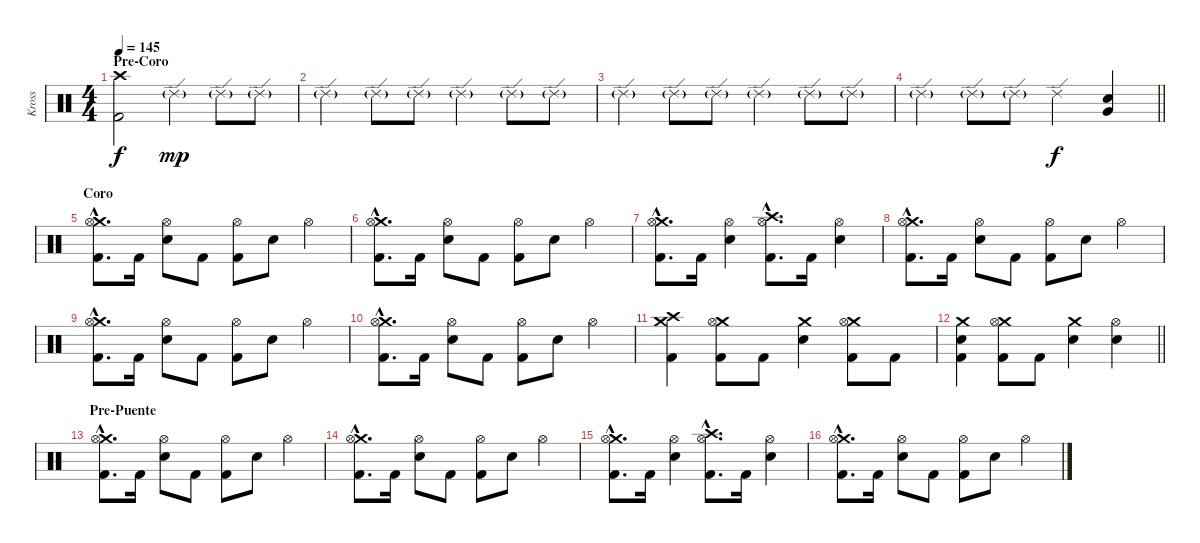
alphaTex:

\track ("Kross" "Kross") {instrument percussion}
\staff {score}
\articulation defaults
\ts (4 4)
\section ("" "Pre-Coro")
\tempo 145
\clef neutral
\ks c
("Crash high (hit)" "Kick (hit) 2").2{dy f} "Ride (edge) 2"{g}.4{dy mp} "Ride (edge) 2"{g}.8 "Ride (edge) 2"{g}.8 |
"Ride (edge) 2"{g}.4 "Ride (edge) 2"{g}.8 "Ride (edge) 2"{g}.8 "Ride (edge) 2"{g}.4 "Ride (edge) 2"{g}.8 "Ride (edge) 2"{g}.8 |
"Ride (edge) 2"{g}.4 "Ride (edge) 2"{g}.8 "Ride (edge) 2"{g}.8 "Ride (edge) 2"{g}.4 "Ride (edge) 2"{g}.8 "Ride (edge) 2"{g}.8 |
\barLineRight lightlight "Ride (edge) 2"{g}.4 "Ride (edge) 2"{g}.8 "Ride (edge) 2"{g}.8 "Ride (edge) 2".4{dy f}
("Very Low Tom (hit)" "Electric Snare (hit)").4 |
\section ("" "Coro")
("Crash medium (hit)"{hac} "Hi-Hat (open)"{hac} "Kick (hit) 2"{hac}).8{d} "Kick (hit) 2".16 ("Hi-Hat (open)" "Electric Snare (hit)").8 "Kick (hit) 2".8 ("Hi-Hat (open)" "Kick (hit) 2").8 "Electric Snare (hit)".8 "Hi-Hat (open)".4 |
("Crash medium (hit)"{hac} "Hi-Hat (open)"{hac} "Kick (hit) 2"{hac}).8{d} "Kick (hit) 2".16 ("Hi-Hat (open)" "Electric Snare (hit)").8 "Kick (hit) 2".8 ("Hi-Hat (open)" "Kick (hit) 2").8 "Electric Snare (hit)".8 "Hi-Hat (open)".4 |
("Crash medium (hit)"{hac} "Hi-Hat (open)"{hac} "Kick (hit) 2"{hac}).8{d} "Kick (hit) 2".16 ("Hi-Hat (open)" "Electric Snare (hit)").4 ("Crash high (hit)"{hac} "Hi-Hat (open)"{hac} "Kick (hit) 2"{hac}).8{d} "Kick (hit) 2".16 ("Hi-Hat (open)" "Electric Snare (hit)").4 |
("Crash medium (hit)"{hac} "Hi-Hat (open)"{hac} "Kick (hit) 2"{hac}).8{d} "Kick (hit) 2".16 ("Hi-Hat (open)" "Electric Snare (hit)").8 "Kick (hit) 2".8 ("Hi-Hat (open)" "Kick (hit) 2").8 "Electric Snare (hit)".8 "Hi-Hat (open)".4 |
("Crash medium (hit)"{hac} "Hi-Hat (open)"{hac} "Kick (hit) 2"{hac}).8{d} "Kick (hit) 2".16 ("Hi-Hat (open)" "Electric Snare (hit)").8 "Kick (hit) 2".8 ("Hi-Hat (open)" "Kick (hit) 2").8 "Electric Snare (hit)".8 "Hi-Hat (open)".4 |
("Crash medium (hit)"{hac} "Hi-Hat (open)"{hac} "Kick (hit) 2"{hac}).8{d} "Kick (hit) 2".16 ("Hi-Hat (open)" "Electric Snare (hit)").8 "Kick (hit) 2".8 ("Hi-Hat (open)" "Kick (hit) 2").8 "Electric Snare (hit)".8 "Hi-Hat (open)".4 |
("Crash medium (hit)" "Crash high (hit)" "Kick (hit) 2").4 ("Crash medium (hit)" "Hi-Hat (open)" "Kick (hit) 2").8 "Kick (hit) 2".8 ("Crash medium (hit)" "Electric Snare (hit)").4 ("Crash medium (hit)" "Hi-Hat (open)" "Kick (hit) 2").8 "Kick (hit) 2".8 |
\barLineRight lightlight
("Crash medium (hit)" "Electric Snare (hit)" "Kick (hit) 2").4 ("Crash medium (hit)" "Hi-Hat (open)" "Kick (hit) 2").8 "Kick (hit) 2".8 ("Crash medium (hit)" "Electric Snare (hit)").4 ("Hi-Hat (open)" "Electric Snare (hit)").4 |
\section ("" "Pre-Puente")
("Crash medium (hit)"{hac} "Hi-Hat (open)"{hac} "Kick (hit) 2"{hac}).8{d} "Kick (hit) 2".16 ("Hi-Hat (open)" "Electric Snare (hit)").8 "Kick (hit) 2".8 ("Hi-Hat (open)" "Kick (hit) 2").8 "Electric Snare (hit)".8 "Hi-Hat (open)".4 |
("Crash medium (hit)"{hac} "Hi-Hat (open)"{hac} "Kick (hit) 2"{hac}).8{d} "Kick (hit) 2".16 ("Hi-Hat (open)" "Electric Snare (hit)").8 "Kick (hit) 2".8 ("Hi-Hat (open)" "Kick (hit) 2").8 "Electric Snare (hit)".8 "Hi-Hat (open)".4 |
("Crash medium (hit)"{hac} "Hi-Hat (open)"{hac} "Kick (hit) 2"{hac}).8{d} "Kick (hit) 2".16 ("Hi-Hat (open)" "Electric Snare (hit)").4 ("Crash high (hit)"{hac} "Hi-Hat (open)"{hac} "Kick (hit) 2"{hac}).8{d} "Kick (hit) 2".16 ("Hi-Hat (open)" "Electric Snare (hit)").4 |
("Crash medium (hit)"{hac} "Hi-Hat (open)"{hac} "Kick (hit) 2"{hac}).8{d} "Kick (hit) 2".16 ("Hi-Hat (open)" "Electric Snare (hit)").8 "Kick (hit) 2".8 ("Hi-Hat (open)" "Kick (hit) 2").8 "Electric Snare (hit)".8 "Hi-Hat (open)".4
